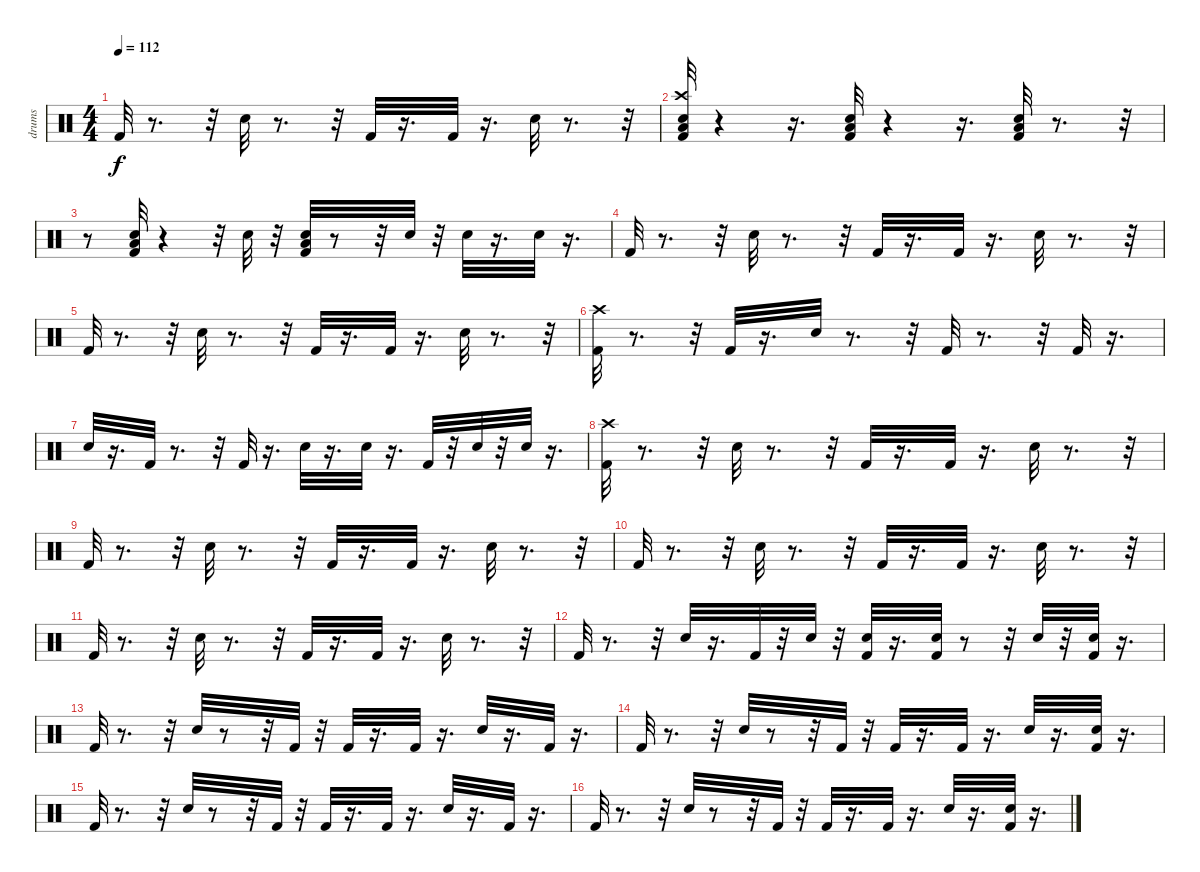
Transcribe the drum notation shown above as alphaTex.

\track ("drums" "drums") {instrument percussion}
\staff {score}
\articulation defaults
\ts (4 4)
\tempo 112
\clef neutral
\ks c "Kick (hit) 2".32{dy f}
r.8{d} r.32 "Snare (hit) 2".32 r.8{d} r.32 "Kick (hit) 2".32 r.16{d} "Kick (hit) 2".32 r.16{d} "Snare (hit) 2".32 r.8{d} r.32 |
("Crash high (hit)" "Kick (hit) 2" "Low Floor Tom (hit)" "Snare (hit) 2").32 r.4 r.16{d} ("Kick (hit) 2" "Low Floor Tom (hit)" "Snare (hit) 2").32 r.4 r.16{d} ("Kick (hit) 2" "Low Floor Tom (hit)" "Snare (hit) 2").32 r.8{d} r.32 |
r.8 ("Kick (hit) 2" "Low Floor Tom (hit)" "Snare (hit) 2").32 r.4 r.32 "Snare (hit) 2".32 r.32 ("Kick (hit) 2" "Low Floor Tom (hit)" "Snare (hit) 2").32 r.8 r.32 "Snare (hit) 2".32 r.32 "Snare (hit) 2".32 r.16{d} "Snare (hit) 2".32 r.16{d} |
"Kick (hit) 2".32 r.8{d} r.32 "Snare (hit) 2".32 r.8{d} r.32 "Kick (hit) 2".32 r.16{d} "Kick (hit) 2".32 r.16{d} "Snare (hit) 2".32 r.8{d} r.32 |
"Kick (hit) 2".32 r.8{d} r.32 "Snare (hit) 2".32 r.8{d} r.32 "Kick (hit) 2".32 r.16{d} "Kick (hit) 2".32 r.16{d} "Snare (hit) 2".32 r.8{d} r.32 |
("Crash high (hit)" "Kick (hit) 2").32 r.8{d} r.32 "Kick (hit) 2".32 r.16{d} "Snare (hit) 2".32 r.8{d} r.32 "Kick (hit) 2".32 r.8{d} r.32 "Kick (hit) 2".32 r.16{d} |
"Snare (hit) 2".32 r.16{d} "Kick (hit) 2".32 r.8{d} r.32 "Kick (hit) 2".32 r.16{d} "Snare (hit) 2".32 r.16{d} "Snare (hit) 2".32 r.16{d} "Kick (hit) 2".32 r.32 "Snare (hit) 2".32 r.32 "Snare (hit) 2".32 r.16{d} |
("Crash high (hit)" "Kick (hit) 2").32 r.8{d} r.32 "Snare (hit) 2".32 r.8{d} r.32 "Kick (hit) 2".32 r.16{d} "Kick (hit) 2".32 r.16{d} "Snare (hit) 2".32 r.8{d} r.32 |
"Kick (hit) 2".32 r.8{d} r.32 "Snare (hit) 2".32 r.8{d} r.32 "Kick (hit) 2".32 r.16{d} "Kick (hit) 2".32 r.16{d} "Snare (hit) 2".32 r.8{d} r.32 |
"Kick (hit) 2".32 r.8{d} r.32 "Snare (hit) 2".32 r.8{d} r.32 "Kick (hit) 2".32 r.16{d} "Kick (hit) 2".32 r.16{d} "Snare (hit) 2".32 r.8{d} r.32 |
"Kick (hit) 2".32 r.8{d} r.32 "Snare (hit) 2".32 r.8{d} r.32 "Kick (hit) 2".32 r.16{d} "Kick (hit) 2".32 r.16{d} "Snare (hit) 2".32 r.8{d} r.32 |
"Kick (hit) 2".32 r.8{d} r.32 "Snare (hit) 2".32 r.16{d} "Kick (hit) 2".32 r.32 "Snare (hit) 2".32 r.32 ("Snare (hit) 2" "Kick (hit) 2").32 r.16{d} ("Snare (hit) 2" "Kick (hit) 2").32 r.8 r.32 "Snare (hit) 2".32 r.32 ("Kick (hit) 2" "Snare (hit) 2").32 r.16{d} |
"Kick (hit) 2".32 r.8{d} r.32 "Snare (hit) 2".32 r.8 r.32 "Kick (hit) 2".32 r.32 "Kick (hit) 2".32 r.16{d} "Kick (hit) 2".32 r.16{d} "Snare (hit) 2".32 r.16{d} "Kick (hit) 2".32 r.16{d} |
"Kick (hit) 2".32 r.8{d} r.32 "Snare (hit) 2".32 r.8 r.32 "Kick (hit) 2".32 r.32 "Kick (hit) 2".32 r.16{d} "Kick (hit) 2".32 r.16{d} "Snare (hit) 2".32 r.16{d} ("Snare (hit) 2" "Kick (hit) 2").32 r.16{d} |
"Kick (hit) 2".32 r.8{d} r.32 "Snare (hit) 2".32 r.8 r.32 "Kick (hit) 2".32 r.32 "Kick (hit) 2".32 r.16{d} "Kick (hit) 2".32 r.16{d} "Snare (hit) 2".32 r.16{d} "Kick (hit) 2".32 r.16{d} |
"Kick (hit) 2".32 r.8{d} r.32 "Snare (hit) 2".32 r.8 r.32 "Kick (hit) 2".32 r.32 "Kick (hit) 2".32 r.16{d} "Kick (hit) 2".32 r.16{d} "Snare (hit) 2".32 r.16{d} ("Snare (hit) 2" "Kick (hit) 2").32 r.16{d}
